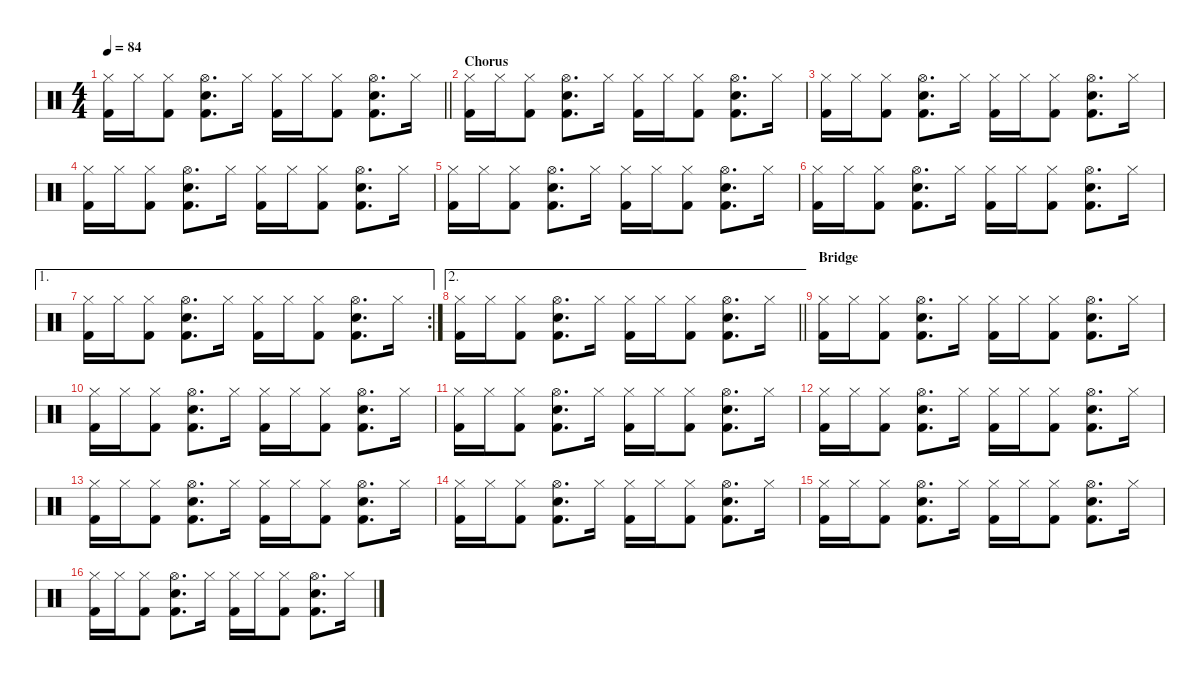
\defaultSystemsLayout 4
\hideDynamics
\bracketExtendMode nobrackets
\singleTrackTrackNamePolicy hidden
\multiTrackTrackNamePolicy hidden
\firstSystemTrackNameMode fullname
\firstSystemTrackNameOrientation horizontal
\otherSystemsTrackNameOrientation horizontal
\track ("Drums" "drm.") {defaultSystemsLayout 4 instrument percussion}
\staff {score}
\articulation defaults
\ts (4 4)
\tempo 84
\clef neutral
\barLineRight lightlight
\ks c
("Kick (hit) 2" "Hi-Hat (closed)").16{dy f beam Down} "Hi-Hat (closed)".16{beam Down} ("Kick (hit) 2" "Hi-Hat (closed)").8{beam Down} ("Kick (hit) 2" "Hi-Hat (open)" "Snare (hit) 2").8{d beam Down} "Hi-Hat (closed)".16{beam Down} ("Kick (hit) 2" "Hi-Hat (closed)").16{beam Down} "Hi-Hat (closed)".16{beam Down} ("Kick (hit) 2" "Hi-Hat (closed)").8{beam Down} ("Kick (hit) 2" "Hi-Hat (open)" "Snare (hit) 2").8{d beam Down} "Hi-Hat (closed)".16{beam Down} |
\section ("" "Chorus")
("Kick (hit) 2" "Hi-Hat (closed)").16{beam Down} "Hi-Hat (closed)".16{beam Down} ("Kick (hit) 2" "Hi-Hat (closed)").8{beam Down} ("Kick (hit) 2" "Hi-Hat (open)" "Snare (hit) 2").8{d beam Down} "Hi-Hat (closed)".16{beam Down} ("Kick (hit) 2" "Hi-Hat (closed)").16{beam Down} "Hi-Hat (closed)".16{beam Down} ("Kick (hit) 2" "Hi-Hat (closed)").8{beam Down} ("Kick (hit) 2" "Hi-Hat (open)" "Snare (hit) 2").8{d beam Down} "Hi-Hat (closed)".16{beam Down} |
("Kick (hit) 2" "Hi-Hat (closed)").16{beam Down} "Hi-Hat (closed)".16{beam Down} ("Kick (hit) 2" "Hi-Hat (closed)").8{beam Down} ("Kick (hit) 2" "Hi-Hat (open)" "Snare (hit) 2").8{d beam Down} "Hi-Hat (closed)".16{beam Down} ("Kick (hit) 2" "Hi-Hat (closed)").16{beam Down} "Hi-Hat (closed)".16{beam Down} ("Kick (hit) 2" "Hi-Hat (closed)").8{beam Down} ("Kick (hit) 2" "Hi-Hat (open)" "Snare (hit) 2").8{d beam Down} "Hi-Hat (closed)".16{beam Down} |
("Kick (hit) 2" "Hi-Hat (closed)").16{beam Down} "Hi-Hat (closed)".16{beam Down} ("Kick (hit) 2" "Hi-Hat (closed)").8{beam Down} ("Kick (hit) 2" "Hi-Hat (open)" "Snare (hit) 2").8{d beam Down} "Hi-Hat (closed)".16{beam Down} ("Kick (hit) 2" "Hi-Hat (closed)").16{beam Down} "Hi-Hat (closed)".16{beam Down} ("Kick (hit) 2" "Hi-Hat (closed)").8{beam Down} ("Kick (hit) 2" "Hi-Hat (open)" "Snare (hit) 2").8{d beam Down} "Hi-Hat (closed)".16{beam Down} |
("Kick (hit) 2" "Hi-Hat (closed)").16{beam Down} "Hi-Hat (closed)".16{beam Down} ("Kick (hit) 2" "Hi-Hat (closed)").8{beam Down} ("Kick (hit) 2" "Hi-Hat (open)" "Snare (hit) 2").8{d beam Down} "Hi-Hat (closed)".16{beam Down} ("Kick (hit) 2" "Hi-Hat (closed)").16{beam Down} "Hi-Hat (closed)".16{beam Down} ("Kick (hit) 2" "Hi-Hat (closed)").8{beam Down} ("Kick (hit) 2" "Hi-Hat (open)" "Snare (hit) 2").8{d beam Down} "Hi-Hat (closed)".16{beam Down} |
("Kick (hit) 2" "Hi-Hat (closed)").16{beam Down} "Hi-Hat (closed)".16{beam Down} ("Kick (hit) 2" "Hi-Hat (closed)").8{beam Down} ("Kick (hit) 2" "Hi-Hat (open)" "Snare (hit) 2").8{d beam Down} "Hi-Hat (closed)".16{beam Down} ("Kick (hit) 2" "Hi-Hat (closed)").16{beam Down} "Hi-Hat (closed)".16{beam Down} ("Kick (hit) 2" "Hi-Hat (closed)").8{beam Down} ("Kick (hit) 2" "Hi-Hat (open)" "Snare (hit) 2").8{d beam Down} "Hi-Hat (closed)".16{beam Down} |
\ae 1
\rc 2
("Kick (hit) 2" "Hi-Hat (closed)").16{beam Down} "Hi-Hat (closed)".16{beam Down} ("Kick (hit) 2" "Hi-Hat (closed)").8{beam Down} ("Kick (hit) 2" "Hi-Hat (open)" "Snare (hit) 2").8{d beam Down} "Hi-Hat (closed)".16{beam Down} ("Kick (hit) 2" "Hi-Hat (closed)").16{beam Down} "Hi-Hat (closed)".16{beam Down} ("Kick (hit) 2" "Hi-Hat (closed)").8{beam Down} ("Kick (hit) 2" "Hi-Hat (open)" "Snare (hit) 2").8{d beam Down} "Hi-Hat (closed)".16{beam Down} |
\ae 2
\barLineRight lightlight
("Kick (hit) 2" "Hi-Hat (closed)").16{beam Down} "Hi-Hat (closed)".16{beam Down} ("Kick (hit) 2" "Hi-Hat (closed)").8{beam Down} ("Kick (hit) 2" "Hi-Hat (open)" "Snare (hit) 2").8{d beam Down} "Hi-Hat (closed)".16{beam Down} ("Kick (hit) 2" "Hi-Hat (closed)").16{beam Down} "Hi-Hat (closed)".16{beam Down} ("Kick (hit) 2" "Hi-Hat (closed)").8{beam Down} ("Kick (hit) 2" "Hi-Hat (open)" "Snare (hit) 2").8{d beam Down} "Hi-Hat (closed)".16{beam Down} |
\section ("" "Bridge")
("Kick (hit) 2" "Hi-Hat (closed)").16{beam Down} "Hi-Hat (closed)".16{beam Down} ("Kick (hit) 2" "Hi-Hat (closed)").8{beam Down} ("Kick (hit) 2" "Hi-Hat (open)" "Snare (hit) 2").8{d beam Down} "Hi-Hat (closed)".16{beam Down} ("Kick (hit) 2" "Hi-Hat (closed)").16{beam Down} "Hi-Hat (closed)".16{beam Down} ("Kick (hit) 2" "Hi-Hat (closed)").8{beam Down} ("Kick (hit) 2" "Hi-Hat (open)" "Snare (hit) 2").8{d beam Down} "Hi-Hat (closed)".16{beam Down} |
("Kick (hit) 2" "Hi-Hat (closed)").16{beam Down} "Hi-Hat (closed)".16{beam Down} ("Kick (hit) 2" "Hi-Hat (closed)").8{beam Down} ("Kick (hit) 2" "Hi-Hat (open)" "Snare (hit) 2").8{d beam Down} "Hi-Hat (closed)".16{beam Down} ("Kick (hit) 2" "Hi-Hat (closed)").16{beam Down} "Hi-Hat (closed)".16{beam Down} ("Kick (hit) 2" "Hi-Hat (closed)").8{beam Down} ("Kick (hit) 2" "Hi-Hat (open)" "Snare (hit) 2").8{d beam Down} "Hi-Hat (closed)".16{beam Down} |
("Kick (hit) 2" "Hi-Hat (closed)").16{beam Down} "Hi-Hat (closed)".16{beam Down} ("Kick (hit) 2" "Hi-Hat (closed)").8{beam Down} ("Kick (hit) 2" "Hi-Hat (open)" "Snare (hit) 2").8{d beam Down} "Hi-Hat (closed)".16{beam Down} ("Kick (hit) 2" "Hi-Hat (closed)").16{beam Down} "Hi-Hat (closed)".16{beam Down} ("Kick (hit) 2" "Hi-Hat (closed)").8{beam Down} ("Kick (hit) 2" "Hi-Hat (open)" "Snare (hit) 2").8{d beam Down} "Hi-Hat (closed)".16{beam Down} |
("Kick (hit) 2" "Hi-Hat (closed)").16{beam Down} "Hi-Hat (closed)".16{beam Down} ("Kick (hit) 2" "Hi-Hat (closed)").8{beam Down} ("Kick (hit) 2" "Hi-Hat (open)" "Snare (hit) 2").8{d beam Down} "Hi-Hat (closed)".16{beam Down} ("Kick (hit) 2" "Hi-Hat (closed)").16{beam Down} "Hi-Hat (closed)".16{beam Down} ("Kick (hit) 2" "Hi-Hat (closed)").8{beam Down} ("Kick (hit) 2" "Hi-Hat (open)" "Snare (hit) 2").8{d beam Down} "Hi-Hat (closed)".16{beam Down} |
("Kick (hit) 2" "Hi-Hat (closed)").16{beam Down} "Hi-Hat (closed)".16{beam Down} ("Kick (hit) 2" "Hi-Hat (closed)").8{beam Down} ("Kick (hit) 2" "Hi-Hat (open)" "Snare (hit) 2").8{d beam Down} "Hi-Hat (closed)".16{beam Down} ("Kick (hit) 2" "Hi-Hat (closed)").16{beam Down} "Hi-Hat (closed)".16{beam Down} ("Kick (hit) 2" "Hi-Hat (closed)").8{beam Down} ("Kick (hit) 2" "Hi-Hat (open)" "Snare (hit) 2").8{d beam Down} "Hi-Hat (closed)".16{beam Down} |
("Kick (hit) 2" "Hi-Hat (closed)").16{beam Down} "Hi-Hat (closed)".16{beam Down} ("Kick (hit) 2" "Hi-Hat (closed)").8{beam Down} ("Kick (hit) 2" "Hi-Hat (open)" "Snare (hit) 2").8{d beam Down} "Hi-Hat (closed)".16{beam Down} ("Kick (hit) 2" "Hi-Hat (closed)").16{beam Down} "Hi-Hat (closed)".16{beam Down} ("Kick (hit) 2" "Hi-Hat (closed)").8{beam Down} ("Kick (hit) 2" "Hi-Hat (open)" "Snare (hit) 2").8{d beam Down} "Hi-Hat (closed)".16{beam Down} |
("Kick (hit) 2" "Hi-Hat (closed)").16{beam Down} "Hi-Hat (closed)".16{beam Down} ("Kick (hit) 2" "Hi-Hat (closed)").8{beam Down} ("Kick (hit) 2" "Hi-Hat (open)" "Snare (hit) 2").8{d beam Down} "Hi-Hat (closed)".16{beam Down} ("Kick (hit) 2" "Hi-Hat (closed)").16{beam Down} "Hi-Hat (closed)".16{beam Down} ("Kick (hit) 2" "Hi-Hat (closed)").8{beam Down} ("Kick (hit) 2" "Hi-Hat (open)" "Snare (hit) 2").8{d beam Down} "Hi-Hat (closed)".16{beam Down} |
("Kick (hit) 2" "Hi-Hat (closed)").16{beam Down} "Hi-Hat (closed)".16{beam Down} ("Kick (hit) 2" "Hi-Hat (closed)").8{beam Down} ("Kick (hit) 2" "Hi-Hat (open)" "Snare (hit) 2").8{d beam Down} "Hi-Hat (closed)".16{beam Down} ("Kick (hit) 2" "Hi-Hat (closed)").16{beam Down} "Hi-Hat (closed)".16{beam Down} ("Kick (hit) 2" "Hi-Hat (closed)").8{beam Down} ("Kick (hit) 2" "Hi-Hat (open)" "Snare (hit) 2").8{d beam Down} "Hi-Hat (closed)".16{beam Down}
